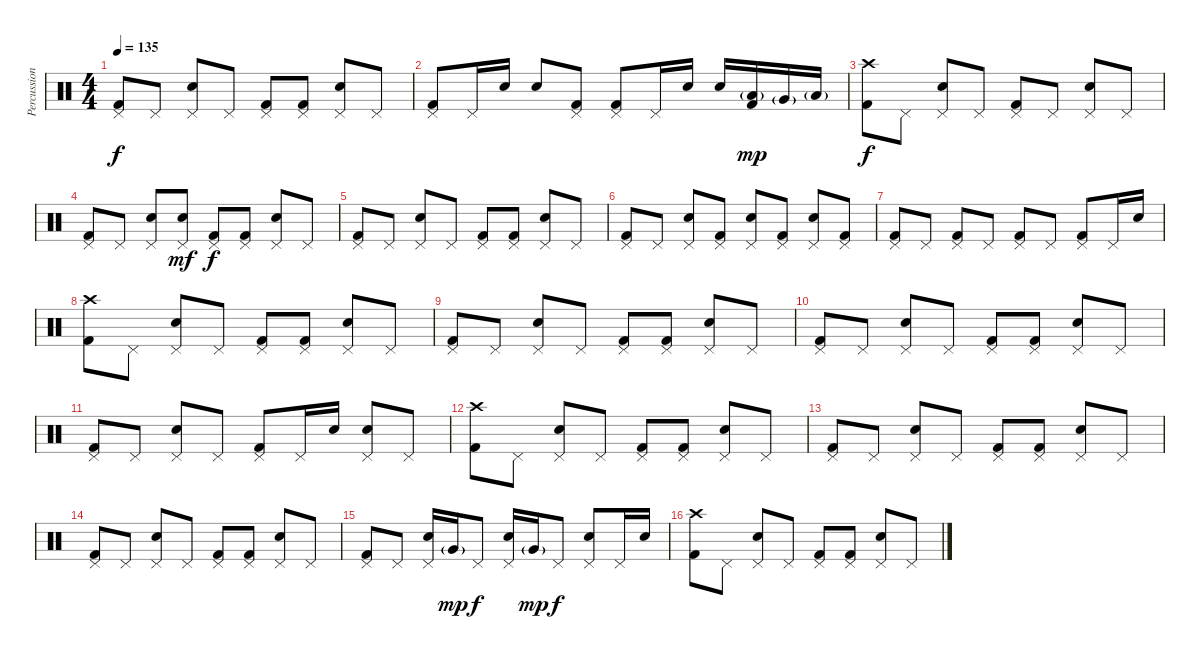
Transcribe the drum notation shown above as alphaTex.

\track ("Percussion" "Percussion") {instrument percussion}
\staff {score}
\articulation defaults
\ts (4 4)
\tempo 135
\clef neutral
\ks c
("Pedal Hi-Hat (hit)" "Kick (hit) 2").8{dy f} "Pedal Hi-Hat (hit)".8 ("Pedal Hi-Hat (hit)" "Snare (hit) 2").8 "Pedal Hi-Hat (hit)".8 ("Pedal Hi-Hat (hit)" "Kick (hit) 2").8 ("Pedal Hi-Hat (hit)" "Kick (hit) 2").8 ("Pedal Hi-Hat (hit)" "Snare (hit) 2").8 "Pedal Hi-Hat (hit)".8 |
("Pedal Hi-Hat (hit)" "Kick (hit) 2").8 "Pedal Hi-Hat (hit)".16 "Snare (hit) 2".16 "Snare (hit) 2".8 ("Pedal Hi-Hat (hit)" "Kick (hit) 2").8 ("Pedal Hi-Hat (hit)" "Kick (hit) 2").8 "Pedal Hi-Hat (hit)".16 "Snare (hit) 2".16 "Snare (hit) 2".16 ("Low Tom (hit)"{g} "Kick (hit) 2").16{dy mp} "Very Low Tom (hit)"{g}.16 "Low Floor Tom (hit)"{g}.16 |
("Crash high (hit)" "Kick (hit) 2").8{dy f} "Pedal Hi-Hat (hit)".8 ("Pedal Hi-Hat (hit)" "Snare (hit) 2").8 "Pedal Hi-Hat (hit)".8 ("Pedal Hi-Hat (hit)" "Kick (hit) 2").8 "Pedal Hi-Hat (hit)".8 ("Pedal Hi-Hat (hit)" "Snare (hit) 2").8 "Pedal Hi-Hat (hit)".8 |
("Pedal Hi-Hat (hit)" "Kick (hit) 2").8 "Pedal Hi-Hat (hit)".8 ("Pedal Hi-Hat (hit)" "Snare (hit) 2").8 ("Pedal Hi-Hat (hit)" "Snare (hit) 2").8{dy mf} ("Pedal Hi-Hat (hit)" "Kick (hit) 2").8{dy f} ("Pedal Hi-Hat (hit)" "Kick (hit) 2").8 ("Pedal Hi-Hat (hit)" "Snare (hit) 2").8 "Pedal Hi-Hat (hit)".8 |
("Pedal Hi-Hat (hit)" "Kick (hit) 2").8 "Pedal Hi-Hat (hit)".8 ("Pedal Hi-Hat (hit)" "Snare (hit) 2").8 "Pedal Hi-Hat (hit)".8 ("Pedal Hi-Hat (hit)" "Kick (hit) 2").8 ("Pedal Hi-Hat (hit)" "Kick (hit) 2").8 ("Pedal Hi-Hat (hit)" "Snare (hit) 2").8 "Pedal Hi-Hat (hit)".8 |
("Pedal Hi-Hat (hit)" "Kick (hit) 2").8 "Pedal Hi-Hat (hit)".8 ("Pedal Hi-Hat (hit)" "Snare (hit) 2").8 ("Pedal Hi-Hat (hit)" "Kick (hit) 2").8 ("Pedal Hi-Hat (hit)" "Snare (hit) 2").8 ("Pedal Hi-Hat (hit)" "Kick (hit) 2").8 ("Pedal Hi-Hat (hit)" "Snare (hit) 2").8 ("Pedal Hi-Hat (hit)" "Kick (hit) 2").8 |
("Pedal Hi-Hat (hit)" "Kick (hit) 2").8 "Pedal Hi-Hat (hit)".8 ("Pedal Hi-Hat (hit)" "Kick (hit) 2").8 "Pedal Hi-Hat (hit)".8 ("Pedal Hi-Hat (hit)" "Kick (hit) 2").8 "Pedal Hi-Hat (hit)".8 ("Pedal Hi-Hat (hit)" "Kick (hit) 2").8 "Pedal Hi-Hat (hit)".16 "Snare (hit) 2".16 |
("Crash high (hit)" "Kick (hit) 2").8 "Pedal Hi-Hat (hit)".8 ("Pedal Hi-Hat (hit)" "Snare (hit) 2").8 "Pedal Hi-Hat (hit)".8 ("Pedal Hi-Hat (hit)" "Kick (hit) 2").8 ("Pedal Hi-Hat (hit)" "Kick (hit) 2").8 ("Pedal Hi-Hat (hit)" "Snare (hit) 2").8 "Pedal Hi-Hat (hit)".8 |
("Pedal Hi-Hat (hit)" "Kick (hit) 2").8 "Pedal Hi-Hat (hit)".8 ("Pedal Hi-Hat (hit)" "Snare (hit) 2").8 "Pedal Hi-Hat (hit)".8 ("Pedal Hi-Hat (hit)" "Kick (hit) 2").8 ("Pedal Hi-Hat (hit)" "Kick (hit) 2").8 ("Pedal Hi-Hat (hit)" "Snare (hit) 2").8 "Pedal Hi-Hat (hit)".8 |
("Pedal Hi-Hat (hit)" "Kick (hit) 2").8 "Pedal Hi-Hat (hit)".8 ("Pedal Hi-Hat (hit)" "Snare (hit) 2").8 "Pedal Hi-Hat (hit)".8 ("Pedal Hi-Hat (hit)" "Kick (hit) 2").8 ("Pedal Hi-Hat (hit)" "Kick (hit) 2").8 ("Pedal Hi-Hat (hit)" "Snare (hit) 2").8 "Pedal Hi-Hat (hit)".8 |
("Pedal Hi-Hat (hit)" "Kick (hit) 2").8 "Pedal Hi-Hat (hit)".8 ("Pedal Hi-Hat (hit)" "Snare (hit) 2").8 "Pedal Hi-Hat (hit)".8 ("Pedal Hi-Hat (hit)" "Kick (hit) 2").8 "Pedal Hi-Hat (hit)".16 "Snare (hit) 2".16 ("Pedal Hi-Hat (hit)" "Snare (hit) 2").8 "Pedal Hi-Hat (hit)".8 |
("Crash high (hit)" "Kick (hit) 2").8 "Pedal Hi-Hat (hit)".8 ("Pedal Hi-Hat (hit)" "Snare (hit) 2").8 "Pedal Hi-Hat (hit)".8 ("Pedal Hi-Hat (hit)" "Kick (hit) 2").8 ("Pedal Hi-Hat (hit)" "Kick (hit) 2").8 ("Pedal Hi-Hat (hit)" "Snare (hit) 2").8 "Pedal Hi-Hat (hit)".8 |
("Pedal Hi-Hat (hit)" "Kick (hit) 2").8 "Pedal Hi-Hat (hit)".8 ("Pedal Hi-Hat (hit)" "Snare (hit) 2").8 "Pedal Hi-Hat (hit)".8 ("Pedal Hi-Hat (hit)" "Kick (hit) 2").8 ("Pedal Hi-Hat (hit)" "Kick (hit) 2").8 ("Pedal Hi-Hat (hit)" "Snare (hit) 2").8 "Pedal Hi-Hat (hit)".8 |
("Pedal Hi-Hat (hit)" "Kick (hit) 2").8 "Pedal Hi-Hat (hit)".8 ("Pedal Hi-Hat (hit)" "Snare (hit) 2").8 "Pedal Hi-Hat (hit)".8 ("Pedal Hi-Hat (hit)" "Kick (hit) 2").8 ("Pedal Hi-Hat (hit)" "Kick (hit) 2").8 ("Pedal Hi-Hat (hit)" "Snare (hit) 2").8 "Pedal Hi-Hat (hit)".8 |
("Pedal Hi-Hat (hit)" "Kick (hit) 2").8 "Pedal Hi-Hat (hit)".8 ("Pedal Hi-Hat (hit)" "Snare (hit) 2").16 "Very Low Tom (hit)"{g}.16{dy mp} "Pedal Hi-Hat (hit)".8{dy f} ("Pedal Hi-Hat (hit)" "Snare (hit) 2").16 "Very Low Tom (hit)"{g}.16{dy mp} "Pedal Hi-Hat (hit)".8{dy f} ("Pedal Hi-Hat (hit)" "Snare (hit) 2").8 "Pedal Hi-Hat (hit)".16 "Snare (hit) 2".16 |
("Crash high (hit)" "Kick (hit) 2").8 "Pedal Hi-Hat (hit)".8 ("Pedal Hi-Hat (hit)" "Snare (hit) 2").8 "Pedal Hi-Hat (hit)".8 ("Pedal Hi-Hat (hit)" "Kick (hit) 2").8 ("Pedal Hi-Hat (hit)" "Kick (hit) 2").8 ("Pedal Hi-Hat (hit)" "Snare (hit) 2").8 "Pedal Hi-Hat (hit)".8
